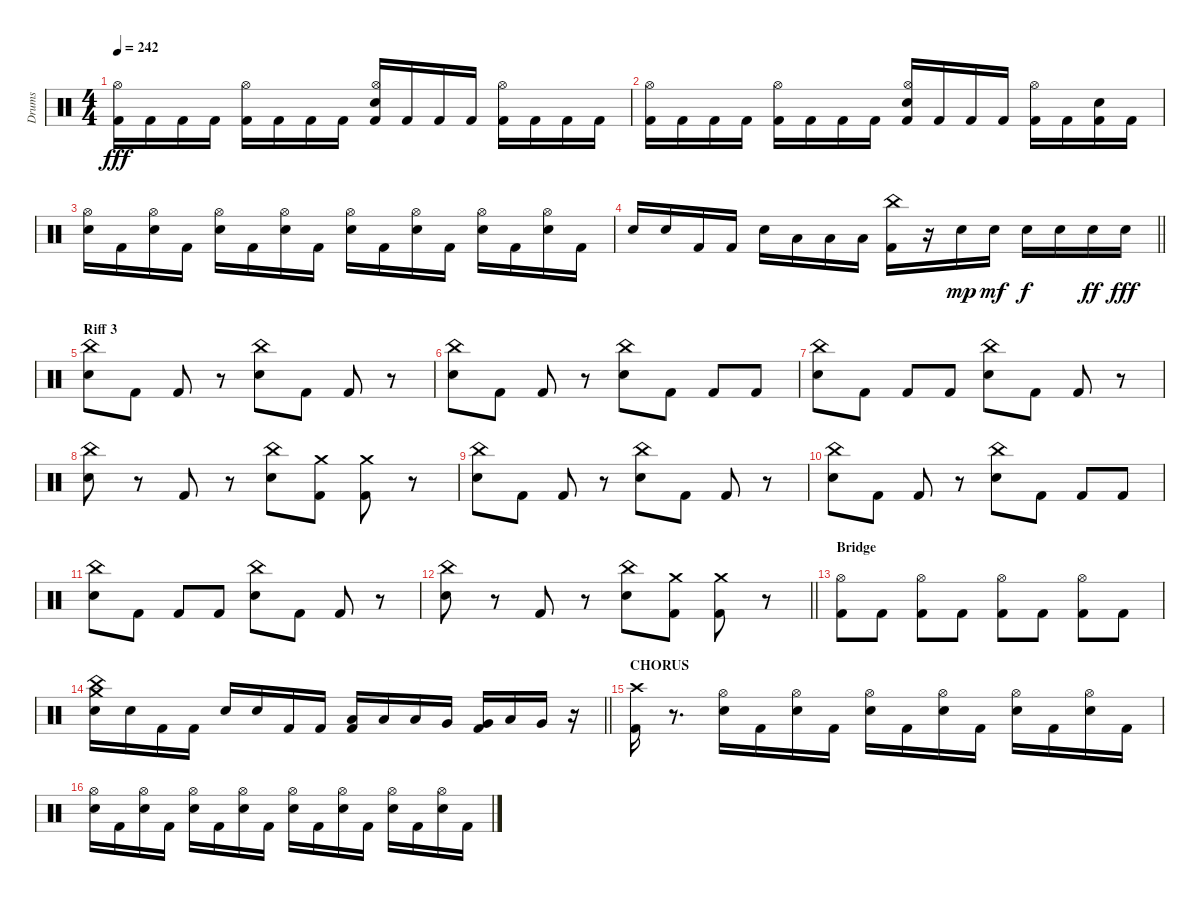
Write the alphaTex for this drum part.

\track ("Drums" "Drums") {instrument percussion}
\staff {score}
\articulation defaults
\ts (4 4)
\tempo 242
\clef neutral
\ks c
("Kick (hit) 2" "Hi-Hat (open)").16{dy fff} "Kick (hit) 2".16 "Kick (hit) 2".16 "Kick (hit) 2".16 ("Kick (hit) 2" "Hi-Hat (open)").16 "Kick (hit) 2".16 "Kick (hit) 2".16 "Kick (hit) 2".16 ("Kick (hit) 2" "Snare (hit) 2" "Hi-Hat (open)").16 "Kick (hit) 2".16 "Kick (hit) 2".16 "Kick (hit) 2".16 ("Kick (hit) 2" "Hi-Hat (open)").16 "Kick (hit) 2".16 "Kick (hit) 2".16 "Kick (hit) 2".16 |
("Kick (hit) 2" "Hi-Hat (open)").16 "Kick (hit) 2".16 "Kick (hit) 2".16 "Kick (hit) 2".16 ("Kick (hit) 2" "Hi-Hat (open)").16 "Kick (hit) 2".16 "Kick (hit) 2".16 "Kick (hit) 2".16 ("Kick (hit) 2" "Snare (hit) 2" "Hi-Hat (open)").16 "Kick (hit) 2".16 "Kick (hit) 2".16 "Kick (hit) 2".16 ("Kick (hit) 2" "Hi-Hat (open)").16 "Kick (hit) 2".16 ("Kick (hit) 2" "Snare (hit) 2").16 "Kick (hit) 2".16 |
("Snare (hit) 2" "Hi-Hat (open)").16 "Kick (hit) 2".16 ("Snare (hit) 2" "Hi-Hat (open)").16 "Kick (hit) 2".16 ("Snare (hit) 2" "Hi-Hat (open)").16 "Kick (hit) 2".16 ("Snare (hit) 2" "Hi-Hat (open)").16 "Kick (hit) 2".16 ("Snare (hit) 2" "Hi-Hat (open)").16 "Kick (hit) 2".16 ("Snare (hit) 2" "Hi-Hat (open)").16 "Kick (hit) 2".16 ("Snare (hit) 2" "Hi-Hat (open)").16 "Kick (hit) 2".16 ("Snare (hit) 2" "Hi-Hat (open)").16 "Kick (hit) 2".16 |
\barLineRight lightlight "Snare (hit) 2".16 "Snare (hit) 2".16 "Kick (hit) 2".16 "Kick (hit) 2".16 "Snare (hit) 2".16 "Low Tom (hit)".16 "Low Tom (hit)".16 "Low Tom (hit)".16
("Kick (hit) 2" "China (hit)").16 r.16 "Snare (hit) 2".16{dy mp} "Snare (hit) 2".16{dy mf} "Snare (hit) 2".16{dy f} "Snare (hit) 2".16 "Snare (hit) 2".16{dy ff} "Snare (hit) 2".16{dy fff} |
\section ("" "Riff 3")
("Snare (hit) 2" "China (hit)").8 "Kick (hit) 2".8 "Kick (hit) 2".8 r.8 ("Snare (hit) 2" "China (hit)").8 "Kick (hit) 2".8 "Kick (hit) 2".8 r.8 |
("Snare (hit) 2" "China (hit)").8 "Kick (hit) 2".8 "Kick (hit) 2".8 r.8 ("Snare (hit) 2" "China (hit)").8 "Kick (hit) 2".8 "Kick (hit) 2".8 "Kick (hit) 2".8 |
("Snare (hit) 2" "China (hit)").8 "Kick (hit) 2".8 "Kick (hit) 2".8 "Kick (hit) 2".8 ("Snare (hit) 2" "China (hit)").8 "Kick (hit) 2".8 "Kick (hit) 2".8 r.8 |
("Snare (hit) 2" "China (hit)").8 r.8 "Kick (hit) 2".8 r.8 ("Snare (hit) 2" "China (hit)").8 ("Kick (hit) 2" "Crash medium (hit)").8 ("Kick (hit) 2" "Crash medium (hit)").8 r.8 |
("Snare (hit) 2" "China (hit)").8 "Kick (hit) 2".8 "Kick (hit) 2".8 r.8 ("Snare (hit) 2" "China (hit)").8 "Kick (hit) 2".8 "Kick (hit) 2".8 r.8 |
("Snare (hit) 2" "China (hit)").8 "Kick (hit) 2".8 "Kick (hit) 2".8 r.8 ("Snare (hit) 2" "China (hit)").8 "Kick (hit) 2".8 "Kick (hit) 2".8 "Kick (hit) 2".8 |
("Snare (hit) 2" "China (hit)").8 "Kick (hit) 2".8 "Kick (hit) 2".8 "Kick (hit) 2".8 ("Snare (hit) 2" "China (hit)").8 "Kick (hit) 2".8 "Kick (hit) 2".8 r.8 |
\barLineRight lightlight
("Snare (hit) 2" "China (hit)").8 r.8 "Kick (hit) 2".8 r.8 ("Snare (hit) 2" "China (hit)").8 ("Kick (hit) 2" "Crash medium (hit)").8 ("Kick (hit) 2" "Crash medium (hit)").8 r.8 |
\section ("" "Bridge")
("Kick (hit) 2" "Hi-Hat (open)").8 "Kick (hit) 2".8 ("Kick (hit) 2" "Hi-Hat (open)").8 "Kick (hit) 2".8 ("Kick (hit) 2" "Hi-Hat (open)").8 "Kick (hit) 2".8 ("Kick (hit) 2" "Hi-Hat (open)").8 "Kick (hit) 2".8 |
\barLineRight lightlight
("Snare (hit) 2" "Crash medium (hit)" "China (hit)").16 "Snare (hit) 2".16 "Kick (hit) 2".16 "Kick (hit) 2".16 "Snare (hit) 2".16 "Snare (hit) 2".16 "Kick (hit) 2".16 "Kick (hit) 2".16 ("Kick (hit) 2" "Low Tom (hit)").16 "Low Tom (hit)".16 "Low Tom (hit)".16 "Very Low Tom (hit)".16 ("Kick (hit) 2" "Very Low Tom (hit)").16 "Low Floor Tom (hit)".16 "Very Low Tom (hit)".16 r.16 |
\section ("" "CHORUS")
("Kick (hit) 2" "Crash high (hit)").16 r.8{d} ("Snare (hit) 2" "Hi-Hat (open)").16 "Kick (hit) 2".16 ("Snare (hit) 2" "Hi-Hat (open)").16 "Kick (hit) 2".16 ("Snare (hit) 2" "Hi-Hat (open)").16 "Kick (hit) 2".16 ("Snare (hit) 2" "Hi-Hat (open)").16 "Kick (hit) 2".16 ("Snare (hit) 2" "Hi-Hat (open)").16 "Kick (hit) 2".16 ("Snare (hit) 2" "Hi-Hat (open)").16 "Kick (hit) 2".16 |
("Snare (hit) 2" "Hi-Hat (open)").16 "Kick (hit) 2".16 ("Snare (hit) 2" "Hi-Hat (open)").16 "Kick (hit) 2".16 ("Snare (hit) 2" "Hi-Hat (open)").16 "Kick (hit) 2".16 ("Snare (hit) 2" "Hi-Hat (open)").16 "Kick (hit) 2".16 ("Snare (hit) 2" "Hi-Hat (open)").16 "Kick (hit) 2".16 ("Snare (hit) 2" "Hi-Hat (open)").16 "Kick (hit) 2".16 ("Snare (hit) 2" "Hi-Hat (open)").16 "Kick (hit) 2".16 ("Snare (hit) 2" "Hi-Hat (open)").16 "Kick (hit) 2".16
